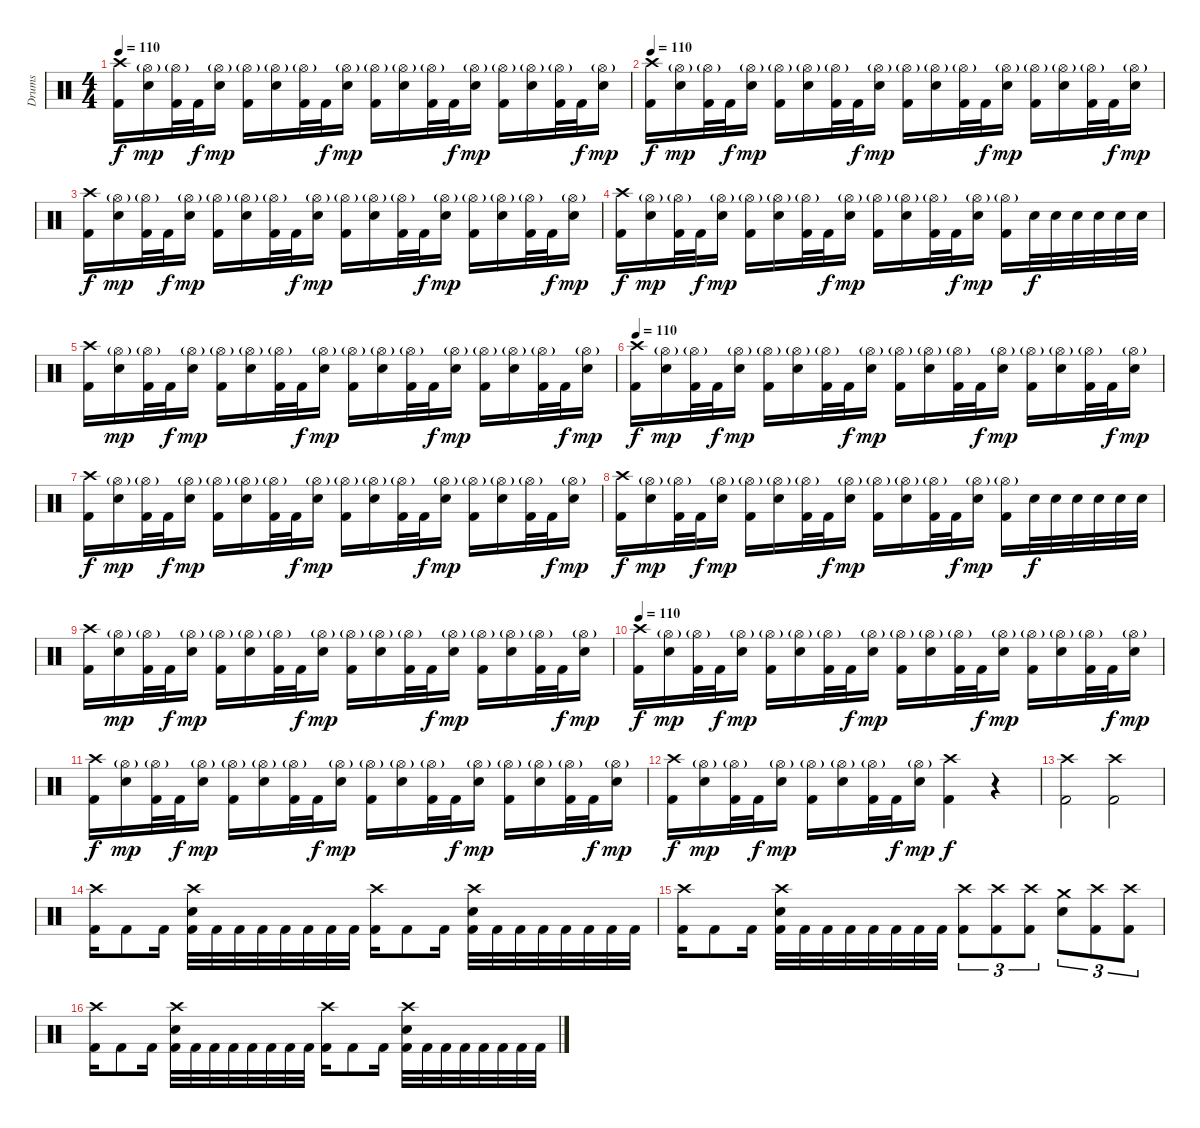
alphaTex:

\track ("Drums" "Drums") {instrument percussion}
\staff {score}
\articulation defaults
\ts (4 4)
\tempo 110
\clef neutral
\ks c
("Crash high (hit)" "Kick (hit) 2").16{dy f volume 11} ("Hi-Hat (open)"{g} "Snare (hit) 2").16{dy mp} ("Hi-Hat (open)"{g} "Kick (hit) 2").32 "Kick (hit) 2".32{dy f} ("Hi-Hat (open)"{g} "Snare (hit) 2").16{dy mp} ("Hi-Hat (open)"{g} "Kick (hit) 2").16 ("Hi-Hat (open)"{g} "Snare (hit) 2").16 ("Hi-Hat (open)"{g} "Kick (hit) 2").32 "Kick (hit) 2".32{dy f} ("Hi-Hat (open)"{g} "Snare (hit) 2").16{dy mp} ("Hi-Hat (open)"{g} "Kick (hit) 2").16 ("Hi-Hat (open)"{g} "Snare (hit) 2").16 ("Hi-Hat (open)"{g} "Kick (hit) 2").32 "Kick (hit) 2".32{dy f} ("Hi-Hat (open)"{g} "Snare (hit) 2").16{dy mp} ("Hi-Hat (open)"{g} "Kick (hit) 2").16 ("Hi-Hat (open)"{g} "Snare (hit) 2").16 ("Hi-Hat (open)"{g} "Kick (hit) 2").32 "Kick (hit) 2".32{dy f} ("Hi-Hat (open)"{g} "Snare (hit) 2").16{dy mp} |
\tempo 110
("Crash high (hit)" "Kick (hit) 2").16{dy f} ("Hi-Hat (open)"{g} "Snare (hit) 2").16{dy mp} ("Hi-Hat (open)"{g} "Kick (hit) 2").32 "Kick (hit) 2".32{dy f} ("Hi-Hat (open)"{g} "Snare (hit) 2").16{dy mp} ("Hi-Hat (open)"{g} "Kick (hit) 2").16 ("Hi-Hat (open)"{g} "Snare (hit) 2").16 ("Hi-Hat (open)"{g} "Kick (hit) 2").32 "Kick (hit) 2".32{dy f} ("Hi-Hat (open)"{g} "Snare (hit) 2").16{dy mp} ("Hi-Hat (open)"{g} "Kick (hit) 2").16 ("Hi-Hat (open)"{g} "Snare (hit) 2").16 ("Hi-Hat (open)"{g} "Kick (hit) 2").32 "Kick (hit) 2".32{dy f} ("Hi-Hat (open)"{g} "Snare (hit) 2").16{dy mp} ("Hi-Hat (open)"{g} "Kick (hit) 2").16 ("Hi-Hat (open)"{g} "Snare (hit) 2").16 ("Hi-Hat (open)"{g} "Kick (hit) 2").32 "Kick (hit) 2".32{dy f} ("Hi-Hat (open)"{g} "Snare (hit) 2").16{dy mp} |
("Crash high (hit)" "Kick (hit) 2").16{dy f} ("Hi-Hat (open)"{g} "Snare (hit) 2").16{dy mp} ("Hi-Hat (open)"{g} "Kick (hit) 2").32 "Kick (hit) 2".32{dy f} ("Hi-Hat (open)"{g} "Snare (hit) 2").16{dy mp} ("Hi-Hat (open)"{g} "Kick (hit) 2").16 ("Hi-Hat (open)"{g} "Snare (hit) 2").16 ("Hi-Hat (open)"{g} "Kick (hit) 2").32 "Kick (hit) 2".32{dy f} ("Hi-Hat (open)"{g} "Snare (hit) 2").16{dy mp} ("Hi-Hat (open)"{g} "Kick (hit) 2").16 ("Hi-Hat (open)"{g} "Snare (hit) 2").16 ("Hi-Hat (open)"{g} "Kick (hit) 2").32 "Kick (hit) 2".32{dy f} ("Hi-Hat (open)"{g} "Snare (hit) 2").16{dy mp} ("Hi-Hat (open)"{g} "Kick (hit) 2").16 ("Hi-Hat (open)"{g} "Snare (hit) 2").16 ("Hi-Hat (open)"{g} "Kick (hit) 2").32 "Kick (hit) 2".32{dy f} ("Hi-Hat (open)"{g} "Snare (hit) 2").16{dy mp} |
("Crash high (hit)" "Kick (hit) 2").16{dy f} ("Hi-Hat (open)"{g} "Snare (hit) 2").16{dy mp} ("Hi-Hat (open)"{g} "Kick (hit) 2").32 "Kick (hit) 2".32{dy f} ("Hi-Hat (open)"{g} "Snare (hit) 2").16{dy mp} ("Hi-Hat (open)"{g} "Kick (hit) 2").16 ("Hi-Hat (open)"{g} "Snare (hit) 2").16 ("Hi-Hat (open)"{g} "Kick (hit) 2").32 "Kick (hit) 2".32{dy f} ("Hi-Hat (open)"{g} "Snare (hit) 2").16{dy mp} ("Hi-Hat (open)"{g} "Kick (hit) 2").16 ("Hi-Hat (open)"{g} "Snare (hit) 2").16 ("Hi-Hat (open)"{g} "Kick (hit) 2").32 "Kick (hit) 2".32{dy f} ("Hi-Hat (open)"{g} "Snare (hit) 2").16{dy mp} ("Hi-Hat (open)"{g} "Kick (hit) 2").16 "Snare (hit) 2".32{dy f} "Snare (hit) 2".32 "Snare (hit) 2".32 "Snare (hit) 2".32 "Snare (hit) 2".32 "Snare (hit) 2".32 |
("Crash high (hit)" "Kick (hit) 2").16{volume 11} ("Hi-Hat (open)"{g} "Snare (hit) 2").16{dy mp} ("Hi-Hat (open)"{g} "Kick (hit) 2").32 "Kick (hit) 2".32{dy f} ("Hi-Hat (open)"{g} "Snare (hit) 2").16{dy mp} ("Hi-Hat (open)"{g} "Kick (hit) 2").16 ("Hi-Hat (open)"{g} "Snare (hit) 2").16 ("Hi-Hat (open)"{g} "Kick (hit) 2").32 "Kick (hit) 2".32{dy f} ("Hi-Hat (open)"{g} "Snare (hit) 2").16{dy mp} ("Hi-Hat (open)"{g} "Kick (hit) 2").16 ("Hi-Hat (open)"{g} "Snare (hit) 2").16 ("Hi-Hat (open)"{g} "Kick (hit) 2").32 "Kick (hit) 2".32{dy f} ("Hi-Hat (open)"{g} "Snare (hit) 2").16{dy mp} ("Hi-Hat (open)"{g} "Kick (hit) 2").16 ("Hi-Hat (open)"{g} "Snare (hit) 2").16 ("Hi-Hat (open)"{g} "Kick (hit) 2").32 "Kick (hit) 2".32{dy f} ("Hi-Hat (open)"{g} "Snare (hit) 2").16{dy mp} |
\tempo 110
("Crash high (hit)" "Kick (hit) 2").16{dy f} ("Hi-Hat (open)"{g} "Snare (hit) 2").16{dy mp} ("Hi-Hat (open)"{g} "Kick (hit) 2").32 "Kick (hit) 2".32{dy f} ("Hi-Hat (open)"{g} "Snare (hit) 2").16{dy mp} ("Hi-Hat (open)"{g} "Kick (hit) 2").16 ("Hi-Hat (open)"{g} "Snare (hit) 2").16 ("Hi-Hat (open)"{g} "Kick (hit) 2").32 "Kick (hit) 2".32{dy f} ("Hi-Hat (open)"{g} "Snare (hit) 2").16{dy mp} ("Hi-Hat (open)"{g} "Kick (hit) 2").16 ("Hi-Hat (open)"{g} "Snare (hit) 2").16 ("Hi-Hat (open)"{g} "Kick (hit) 2").32 "Kick (hit) 2".32{dy f} ("Hi-Hat (open)"{g} "Snare (hit) 2").16{dy mp} ("Hi-Hat (open)"{g} "Kick (hit) 2").16 ("Hi-Hat (open)"{g} "Snare (hit) 2").16 ("Hi-Hat (open)"{g} "Kick (hit) 2").32 "Kick (hit) 2".32{dy f} ("Hi-Hat (open)"{g} "Snare (hit) 2").16{dy mp} |
("Crash high (hit)" "Kick (hit) 2").16{dy f} ("Hi-Hat (open)"{g} "Snare (hit) 2").16{dy mp} ("Hi-Hat (open)"{g} "Kick (hit) 2").32 "Kick (hit) 2".32{dy f} ("Hi-Hat (open)"{g} "Snare (hit) 2").16{dy mp} ("Hi-Hat (open)"{g} "Kick (hit) 2").16 ("Hi-Hat (open)"{g} "Snare (hit) 2").16 ("Hi-Hat (open)"{g} "Kick (hit) 2").32 "Kick (hit) 2".32{dy f} ("Hi-Hat (open)"{g} "Snare (hit) 2").16{dy mp} ("Hi-Hat (open)"{g} "Kick (hit) 2").16 ("Hi-Hat (open)"{g} "Snare (hit) 2").16 ("Hi-Hat (open)"{g} "Kick (hit) 2").32 "Kick (hit) 2".32{dy f} ("Hi-Hat (open)"{g} "Snare (hit) 2").16{dy mp} ("Hi-Hat (open)"{g} "Kick (hit) 2").16 ("Hi-Hat (open)"{g} "Snare (hit) 2").16 ("Hi-Hat (open)"{g} "Kick (hit) 2").32 "Kick (hit) 2".32{dy f} ("Hi-Hat (open)"{g} "Snare (hit) 2").16{dy mp} |
("Crash high (hit)" "Kick (hit) 2").16{dy f} ("Hi-Hat (open)"{g} "Snare (hit) 2").16{dy mp} ("Hi-Hat (open)"{g} "Kick (hit) 2").32 "Kick (hit) 2".32{dy f} ("Hi-Hat (open)"{g} "Snare (hit) 2").16{dy mp} ("Hi-Hat (open)"{g} "Kick (hit) 2").16 ("Hi-Hat (open)"{g} "Snare (hit) 2").16 ("Hi-Hat (open)"{g} "Kick (hit) 2").32 "Kick (hit) 2".32{dy f} ("Hi-Hat (open)"{g} "Snare (hit) 2").16{dy mp} ("Hi-Hat (open)"{g} "Kick (hit) 2").16 ("Hi-Hat (open)"{g} "Snare (hit) 2").16 ("Hi-Hat (open)"{g} "Kick (hit) 2").32 "Kick (hit) 2".32{dy f} ("Hi-Hat (open)"{g} "Snare (hit) 2").16{dy mp} ("Hi-Hat (open)"{g} "Kick (hit) 2").16 "Snare (hit) 2".32{dy f} "Snare (hit) 2".32 "Snare (hit) 2".32 "Snare (hit) 2".32 "Snare (hit) 2".32 "Snare (hit) 2".32 |
("Crash high (hit)" "Kick (hit) 2").16{volume 11} ("Hi-Hat (open)"{g} "Snare (hit) 2").16{dy mp} ("Hi-Hat (open)"{g} "Kick (hit) 2").32 "Kick (hit) 2".32{dy f} ("Hi-Hat (open)"{g} "Snare (hit) 2").16{dy mp} ("Hi-Hat (open)"{g} "Kick (hit) 2").16 ("Hi-Hat (open)"{g} "Snare (hit) 2").16 ("Hi-Hat (open)"{g} "Kick (hit) 2").32 "Kick (hit) 2".32{dy f} ("Hi-Hat (open)"{g} "Snare (hit) 2").16{dy mp} ("Hi-Hat (open)"{g} "Kick (hit) 2").16 ("Hi-Hat (open)"{g} "Snare (hit) 2").16 ("Hi-Hat (open)"{g} "Kick (hit) 2").32 "Kick (hit) 2".32{dy f} ("Hi-Hat (open)"{g} "Snare (hit) 2").16{dy mp} ("Hi-Hat (open)"{g} "Kick (hit) 2").16 ("Hi-Hat (open)"{g} "Snare (hit) 2").16 ("Hi-Hat (open)"{g} "Kick (hit) 2").32 "Kick (hit) 2".32{dy f} ("Hi-Hat (open)"{g} "Snare (hit) 2").16{dy mp} |
\tempo 110
("Crash high (hit)" "Kick (hit) 2").16{dy f} ("Hi-Hat (open)"{g} "Snare (hit) 2").16{dy mp} ("Hi-Hat (open)"{g} "Kick (hit) 2").32 "Kick (hit) 2".32{dy f} ("Hi-Hat (open)"{g} "Snare (hit) 2").16{dy mp} ("Hi-Hat (open)"{g} "Kick (hit) 2").16 ("Hi-Hat (open)"{g} "Snare (hit) 2").16 ("Hi-Hat (open)"{g} "Kick (hit) 2").32 "Kick (hit) 2".32{dy f} ("Hi-Hat (open)"{g} "Snare (hit) 2").16{dy mp} ("Hi-Hat (open)"{g} "Kick (hit) 2").16 ("Hi-Hat (open)"{g} "Snare (hit) 2").16 ("Hi-Hat (open)"{g} "Kick (hit) 2").32 "Kick (hit) 2".32{dy f} ("Hi-Hat (open)"{g} "Snare (hit) 2").16{dy mp} ("Hi-Hat (open)"{g} "Kick (hit) 2").16 ("Hi-Hat (open)"{g} "Snare (hit) 2").16 ("Hi-Hat (open)"{g} "Kick (hit) 2").32 "Kick (hit) 2".32{dy f} ("Hi-Hat (open)"{g} "Snare (hit) 2").16{dy mp} |
("Crash high (hit)" "Kick (hit) 2").16{dy f} ("Hi-Hat (open)"{g} "Snare (hit) 2").16{dy mp} ("Hi-Hat (open)"{g} "Kick (hit) 2").32 "Kick (hit) 2".32{dy f} ("Hi-Hat (open)"{g} "Snare (hit) 2").16{dy mp} ("Hi-Hat (open)"{g} "Kick (hit) 2").16 ("Hi-Hat (open)"{g} "Snare (hit) 2").16 ("Hi-Hat (open)"{g} "Kick (hit) 2").32 "Kick (hit) 2".32{dy f} ("Hi-Hat (open)"{g} "Snare (hit) 2").16{dy mp} ("Hi-Hat (open)"{g} "Kick (hit) 2").16 ("Hi-Hat (open)"{g} "Snare (hit) 2").16 ("Hi-Hat (open)"{g} "Kick (hit) 2").32 "Kick (hit) 2".32{dy f} ("Hi-Hat (open)"{g} "Snare (hit) 2").16{dy mp} ("Hi-Hat (open)"{g} "Kick (hit) 2").16 ("Hi-Hat (open)"{g} "Snare (hit) 2").16 ("Hi-Hat (open)"{g} "Kick (hit) 2").32 "Kick (hit) 2".32{dy f} ("Hi-Hat (open)"{g} "Snare (hit) 2").16{dy mp} |
("Crash high (hit)" "Kick (hit) 2").16{dy f} ("Hi-Hat (open)"{g} "Snare (hit) 2").16{dy mp} ("Hi-Hat (open)"{g} "Kick (hit) 2").32 "Kick (hit) 2".32{dy f} ("Hi-Hat (open)"{g} "Snare (hit) 2").16{dy mp} ("Hi-Hat (open)"{g} "Kick (hit) 2").16 ("Hi-Hat (open)"{g} "Snare (hit) 2").16 ("Hi-Hat (open)"{g} "Kick (hit) 2").32 "Kick (hit) 2".32{dy f} ("Hi-Hat (open)"{g} "Snare (hit) 2").16{dy mp} ("Crash high (hit)" "Kick (hit) 2").4{dy f} r.4 |
("Crash high (hit)" "Kick (hit) 2").2 ("Crash high (hit)" "Kick (hit) 2").2 |
("Crash high (hit)" "Kick (hit) 2").16 "Kick (hit) 2".8 "Kick (hit) 2".16 ("Crash high (hit)" "Snare (hit) 2" "Kick (hit) 2").32 "Kick (hit) 2".32 "Kick (hit) 2".32 "Kick (hit) 2".32 "Kick (hit) 2".32 "Kick (hit) 2".32 "Kick (hit) 2".32 "Kick (hit) 2".32 ("Crash high (hit)" "Kick (hit) 2").16 "Kick (hit) 2".8 "Kick (hit) 2".16 ("Crash high (hit)" "Snare (hit) 2" "Kick (hit) 2").32 "Kick (hit) 2".32 "Kick (hit) 2".32 "Kick (hit) 2".32 "Kick (hit) 2".32 "Kick (hit) 2".32 "Kick (hit) 2".32 "Kick (hit) 2".32 |
("Crash high (hit)" "Kick (hit) 2").16 "Kick (hit) 2".8 "Kick (hit) 2".16 ("Crash high (hit)" "Snare (hit) 2" "Kick (hit) 2").32 "Kick (hit) 2".32 "Kick (hit) 2".32 "Kick (hit) 2".32 "Kick (hit) 2".32 "Kick (hit) 2".32 "Kick (hit) 2".32 "Kick (hit) 2".32 ("Crash high (hit)" "Kick (hit) 2").8{tu (3 2)} ("Crash high (hit)" "Kick (hit) 2").8{tu (3 2)} ("Crash high (hit)" "Kick (hit) 2").8{tu (3 2)} ("Crash medium (hit)" "Snare (hit) 2").8{tu (3 2)} ("Crash high (hit)" "Kick (hit) 2").8{tu (3 2)} ("Crash high (hit)" "Kick (hit) 2").8{tu (3 2)} |
("Crash high (hit)" "Kick (hit) 2").16 "Kick (hit) 2".8 "Kick (hit) 2".16 ("Crash high (hit)" "Snare (hit) 2" "Kick (hit) 2").32 "Kick (hit) 2".32 "Kick (hit) 2".32 "Kick (hit) 2".32 "Kick (hit) 2".32 "Kick (hit) 2".32 "Kick (hit) 2".32 "Kick (hit) 2".32 ("Crash high (hit)" "Kick (hit) 2").16 "Kick (hit) 2".8 "Kick (hit) 2".16 ("Crash high (hit)" "Snare (hit) 2" "Kick (hit) 2").32 "Kick (hit) 2".32 "Kick (hit) 2".32 "Kick (hit) 2".32 "Kick (hit) 2".32 "Kick (hit) 2".32 "Kick (hit) 2".32 "Kick (hit) 2".32
